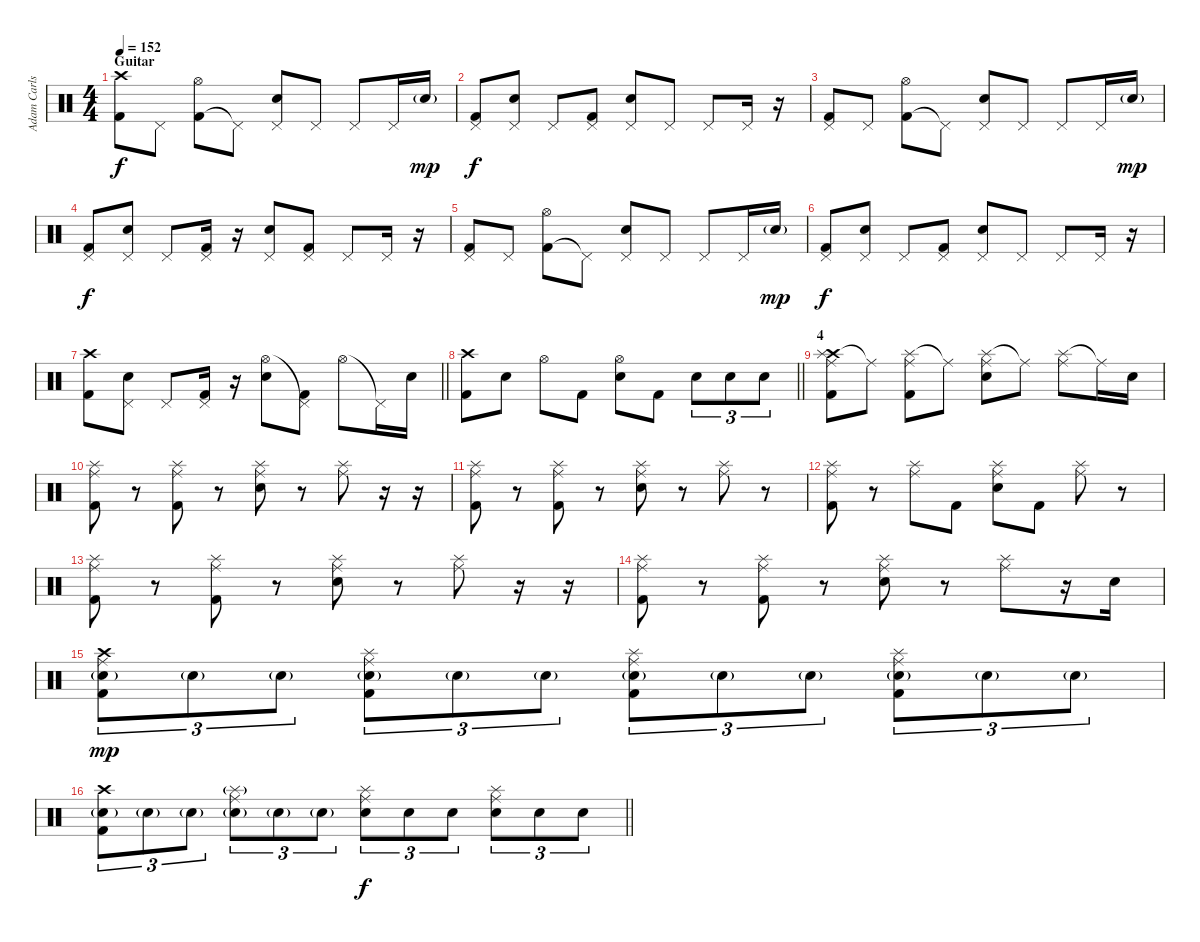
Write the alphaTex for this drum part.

\track ("Adam Carlson" "Adam Carls") {instrument percussion}
\staff {score}
\articulation defaults
\ts (4 4)
\section ("" "Guitar")
\tempo 152
\clef neutral
\ks c
("Crash high (hit)" "Kick (hit) 2").8{dy f} "Pedal Hi-Hat (hit)".8 ("Kick (hit) 2" "Hi-Hat (open)").8 "Pedal Hi-Hat (hit)"{t}.8 ("Snare (hit) 2" "Pedal Hi-Hat (hit)").8 "Pedal Hi-Hat (hit)".8 "Pedal Hi-Hat (hit)".8 "Pedal Hi-Hat (hit)".16 "Snare (hit) 2"{g}.16{dy mp} |
("Kick (hit) 2" "Pedal Hi-Hat (hit)").8{dy f} ("Snare (hit) 2" "Pedal Hi-Hat (hit)").8 "Pedal Hi-Hat (hit)".8 ("Kick (hit) 2" "Pedal Hi-Hat (hit)").8 ("Snare (hit) 2" "Pedal Hi-Hat (hit)").8 "Pedal Hi-Hat (hit)".8 "Pedal Hi-Hat (hit)".8 "Pedal Hi-Hat (hit)".16 r.16 |
("Kick (hit) 2" "Pedal Hi-Hat (hit)").8 "Pedal Hi-Hat (hit)".8 ("Kick (hit) 2" "Hi-Hat (open)").8 "Pedal Hi-Hat (hit)"{t}.8 ("Snare (hit) 2" "Pedal Hi-Hat (hit)").8 "Pedal Hi-Hat (hit)".8 "Pedal Hi-Hat (hit)".8 "Pedal Hi-Hat (hit)".16 "Snare (hit) 2"{g}.16{dy mp} |
("Kick (hit) 2" "Pedal Hi-Hat (hit)").8{dy f} ("Snare (hit) 2" "Pedal Hi-Hat (hit)").8 "Pedal Hi-Hat (hit)".8 ("Kick (hit) 2" "Pedal Hi-Hat (hit)").16 r.16 ("Snare (hit) 2" "Pedal Hi-Hat (hit)").8 ("Kick (hit) 2" "Pedal Hi-Hat (hit)").8 "Pedal Hi-Hat (hit)".8 "Pedal Hi-Hat (hit)".16 r.16 |
("Kick (hit) 2" "Pedal Hi-Hat (hit)").8 "Pedal Hi-Hat (hit)".8 ("Kick (hit) 2" "Hi-Hat (open)").8 "Pedal Hi-Hat (hit)"{t}.8 ("Snare (hit) 2" "Pedal Hi-Hat (hit)").8 "Pedal Hi-Hat (hit)".8 "Pedal Hi-Hat (hit)".8 "Pedal Hi-Hat (hit)".16 "Snare (hit) 2"{g}.16{dy mp} |
("Kick (hit) 2" "Pedal Hi-Hat (hit)").8{dy f} ("Snare (hit) 2" "Pedal Hi-Hat (hit)").8 "Pedal Hi-Hat (hit)".8 ("Kick (hit) 2" "Pedal Hi-Hat (hit)").8 ("Snare (hit) 2" "Pedal Hi-Hat (hit)").8 "Pedal Hi-Hat (hit)".8 "Pedal Hi-Hat (hit)".8 "Pedal Hi-Hat (hit)".16 r.16 |
\barLineRight lightlight
("Crash high (hit)" "Kick (hit) 2").8 ("Snare (hit) 2" "Pedal Hi-Hat (hit)").8 "Pedal Hi-Hat (hit)".8 ("Kick (hit) 2" "Pedal Hi-Hat (hit)").16 r.16 ("Snare (hit) 2" "Hi-Hat (open)").8 ("Kick (hit) 2" "Pedal Hi-Hat (hit)"{t}).8 "Hi-Hat (open)".8 "Pedal Hi-Hat (hit)"{t}.16 "Snare (hit) 2".16 |
\barLineRight lightlight
("Kick (hit) 2" "Crash high (hit)").8 "Snare (hit) 2".8 "Hi-Hat (open)".8 "Kick (hit) 2".8 ("Snare (hit) 2" "Hi-Hat (open)").8 "Kick (hit) 2".8 "Snare (hit) 2".8{tu (3 2)} "Snare (hit) 2".8{tu (3 2)} "Snare (hit) 2".8{tu (3 2)} |
\section ("" "4")
("Crash high (hit)" "Splash (hit)" "Ride (middle)" "Kick (hit) 2").8 "Ride (middle)"{t}.8 ("Splash (hit)" "Ride (middle)" "Kick (hit) 2").8 "Ride (middle)"{t}.8 ("Splash (hit)" "Snare (hit) 2" "Ride (middle)").8 "Ride (middle)"{t}.8 ("Splash (hit)" "Ride (middle)").8 "Ride (middle)"{t}.16 "Snare (hit) 2".16 |
("Splash (hit)" "Ride (middle)" "Kick (hit) 2").8 r.8 ("Splash (hit)" "Ride (middle)" "Kick (hit) 2").8 r.8 ("Splash (hit)" "Snare (hit) 2" "Ride (middle)").8 r.8 ("Splash (hit)" "Ride (middle)").8 r.16 r.16 |
("Splash (hit)" "Ride (middle)" "Kick (hit) 2").8 r.8 ("Splash (hit)" "Ride (middle)" "Kick (hit) 2").8 r.8 ("Splash (hit)" "Snare (hit) 2" "Ride (middle)").8 r.8 ("Splash (hit)" "Ride (middle)").8 r.8 |
("Splash (hit)" "Ride (middle)" "Kick (hit) 2").8 r.8 ("Splash (hit)" "Ride (middle)").8 "Kick (hit) 2".8 ("Splash (hit)" "Snare (hit) 2" "Ride (middle)").8 "Kick (hit) 2".8 ("Splash (hit)" "Ride (middle)").8 r.8 |
("Splash (hit)" "Ride (middle)" "Kick (hit) 2").8 r.8 ("Splash (hit)" "Ride (middle)" "Kick (hit) 2").8 r.8 ("Splash (hit)" "Snare (hit) 2" "Ride (middle)").8 r.8 ("Splash (hit)" "Ride (middle)").8 r.16 r.16 |
("Splash (hit)" "Ride (middle)" "Kick (hit) 2").8 r.8 ("Splash (hit)" "Ride (middle)" "Kick (hit) 2").8 r.8 ("Splash (hit)" "Snare (hit) 2" "Ride (middle)").8 r.8 ("Splash (hit)" "Ride (middle)").8 r.16 "Snare (hit) 2".16 |
("Crash high (hit)" "Ride (middle)" "Snare (hit) 2"{g} "Kick (hit) 2").8{tu (3 2) dy mp} "Snare (hit) 2"{g}.8{tu (3 2)} "Snare (hit) 2"{g}.8{tu (3 2)} ("Ride (middle)" "Snare (hit) 2"{g} "Splash (hit)" "Kick (hit) 2").8{tu (3 2)} "Snare (hit) 2"{g}.8{tu (3 2)} "Snare (hit) 2"{g}.8{tu (3 2)} ("Ride (middle)" "Snare (hit) 2"{g} "Splash (hit)" "Kick (hit) 2").8{tu (3 2)} "Snare (hit) 2"{g}.8{tu (3 2)} "Snare (hit) 2"{g}.8{tu (3 2)} ("Ride (middle)" "Snare (hit) 2"{g} "Splash (hit)" "Kick (hit) 2").8{tu (3 2)} "Snare (hit) 2"{g}.8{tu (3 2)} "Snare (hit) 2"{g}.8{tu (3 2)} |
\barLineRight lightlight
("Snare (hit) 2"{g} "Crash high (hit)" "Kick (hit) 2").8{tu (3 2)} "Snare (hit) 2"{g}.8{tu (3 2)} "Snare (hit) 2"{g}.8{tu (3 2)} ("Snare (hit) 2"{g} "Ride (middle)" "Splash (hit)"{g}).8{tu (3 2)} "Snare (hit) 2"{g}.8{tu (3 2)} "Snare (hit) 2"{g}.8{tu (3 2)} ("Snare (hit) 2" "Ride (middle)" "Splash (hit)").8{tu (3 2) dy f} "Snare (hit) 2".8{tu (3 2)} "Snare (hit) 2".8{tu (3 2)} ("Snare (hit) 2" "Ride (middle)" "Splash (hit)").8{tu (3 2)} "Snare (hit) 2".8{tu (3 2)} "Snare (hit) 2".8{tu (3 2)}
